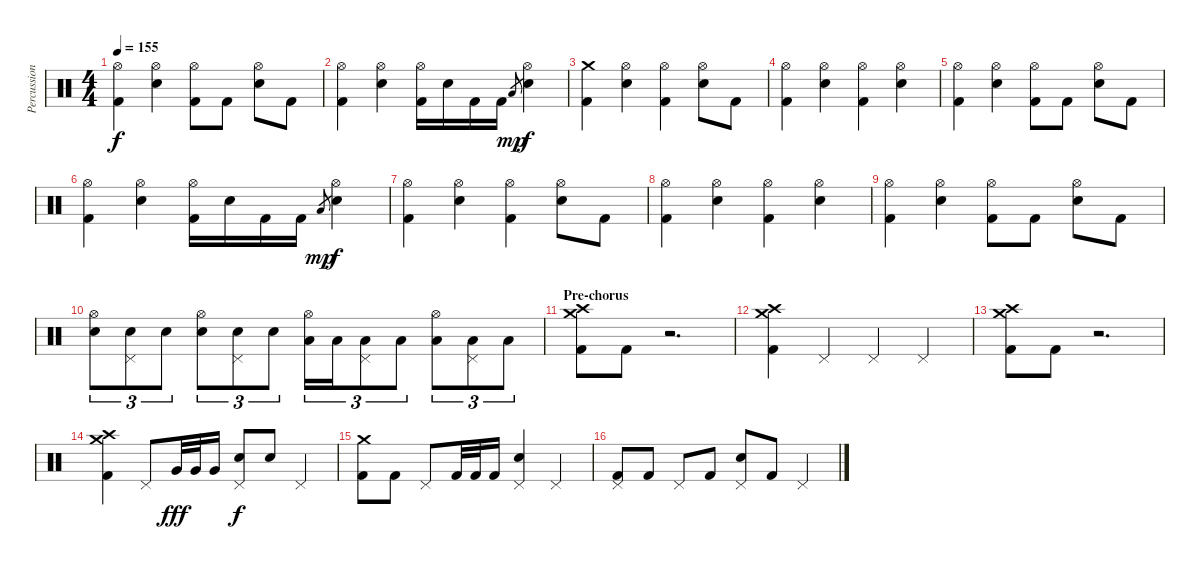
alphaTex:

\track ("Percussion" "Percussion") {instrument percussion}
\staff {score}
\articulation defaults
\ts (4 4)
\tempo 155
\clef neutral
\ks c
("Hi-Hat (open)" "Kick (hit) 2").4{dy f} ("Hi-Hat (open)" "Electric Snare (hit)").4 ("Hi-Hat (open)" "Kick (hit) 2").8 "Kick (hit) 2".8 ("Hi-Hat (open)" "Electric Snare (hit)").8 "Kick (hit) 2".8 |
("Hi-Hat (open)" "Kick (hit) 2").4 ("Hi-Hat (open)" "Electric Snare (hit)").4 ("Hi-Hat (open)" "Kick (hit) 2").16 "Electric Snare (hit)".16 "Kick (hit) 2".16 "Kick (hit) 2".16 "Low Tom (hit)".8{gr dy mp} ("Hi-Hat (open)" "Electric Snare (hit)").4{dy f} |
("Crash medium (hit)" "Kick (hit) 2").4 ("Hi-Hat (open)" "Electric Snare (hit)").4 ("Hi-Hat (open)" "Kick (hit) 2").4 ("Hi-Hat (open)" "Electric Snare (hit)").8 "Kick (hit) 2".8 |
("Hi-Hat (open)" "Kick (hit) 2").4 ("Hi-Hat (open)" "Electric Snare (hit)").4 ("Hi-Hat (open)" "Kick (hit) 2").4 ("Hi-Hat (open)" "Electric Snare (hit)").4 |
("Hi-Hat (open)" "Kick (hit) 2").4 ("Hi-Hat (open)" "Electric Snare (hit)").4 ("Hi-Hat (open)" "Kick (hit) 2").8 "Kick (hit) 2".8 ("Hi-Hat (open)" "Electric Snare (hit)").8 "Kick (hit) 2".8 |
("Hi-Hat (open)" "Kick (hit) 2").4 ("Hi-Hat (open)" "Electric Snare (hit)").4 ("Hi-Hat (open)" "Kick (hit) 2").16 "Electric Snare (hit)".16 "Kick (hit) 2".16 "Kick (hit) 2".16 "Low Tom (hit)".8{gr dy mp} ("Hi-Hat (open)" "Electric Snare (hit)").4{dy f} |
("Hi-Hat (open)" "Kick (hit) 2").4 ("Hi-Hat (open)" "Electric Snare (hit)").4 ("Hi-Hat (open)" "Kick (hit) 2").4 ("Hi-Hat (open)" "Electric Snare (hit)").8 "Kick (hit) 2".8 |
("Hi-Hat (open)" "Kick (hit) 2").4 ("Hi-Hat (open)" "Electric Snare (hit)").4 ("Hi-Hat (open)" "Kick (hit) 2").4 ("Hi-Hat (open)" "Electric Snare (hit)").4 |
("Hi-Hat (open)" "Kick (hit) 2").4 ("Hi-Hat (open)" "Electric Snare (hit)").4 ("Hi-Hat (open)" "Kick (hit) 2").8 "Kick (hit) 2".8 ("Hi-Hat (open)" "Electric Snare (hit)").8 "Kick (hit) 2".8 |
("Hi-Hat (open)" "Electric Snare (hit)").8{tu (3 2)} ("Pedal Hi-Hat (hit)" "Electric Snare (hit)").8{tu (3 2)} "Electric Snare (hit)".8{tu (3 2)} ("Hi-Hat (open)" "Electric Snare (hit)").8{tu (3 2)} ("Pedal Hi-Hat (hit)" "Electric Snare (hit)").8{tu (3 2)} "Electric Snare (hit)".8{tu (3 2)} ("Hi-Hat (open)" "Low Tom (hit)").16{tu (3 2)} "Low Tom (hit)".16{tu (3 2)} ("Pedal Hi-Hat (hit)" "Low Tom (hit)").8{tu (3 2)} "Low Tom (hit)".8{tu (3 2)} ("Hi-Hat (open)" "Low Tom (hit)").8{tu (3 2)} ("Pedal Hi-Hat (hit)" "Low Tom (hit)").8{tu (3 2)} "Low Tom (hit)".8{tu (3 2)} |
\section ("" "Pre-chorus")
("Crash medium (hit)" "Crash high (hit)" "Kick (hit) 2").8 "Kick (hit) 2".8 r.2{d} |
("Crash medium (hit)" "Crash high (hit)" "Kick (hit) 2").4 "Pedal Hi-Hat (hit)".4 "Pedal Hi-Hat (hit)".4 "Pedal Hi-Hat (hit)".4 |
("Crash medium (hit)" "Crash high (hit)" "Kick (hit) 2").8 "Kick (hit) 2".8 r.2{d} |
("Crash medium (hit)" "Crash high (hit)" "Kick (hit) 2").4 "Pedal Hi-Hat (hit)".8 "Very Low Tom (hit)".32{dy fff} "Very Low Tom (hit)".32 "Very Low Tom (hit)".16 ("Pedal Hi-Hat (hit)" "Electric Snare (hit)").8{dy f} "Electric Snare (hit)".8 "Pedal Hi-Hat (hit)".4 |
("Crash medium (hit)" "Kick (hit) 2").8 "Kick (hit) 2".8 "Pedal Hi-Hat (hit)".8 "Kick (hit) 2".32 "Kick (hit) 2".32 "Kick (hit) 2".16 ("Pedal Hi-Hat (hit)" "Electric Snare (hit)").4 "Pedal Hi-Hat (hit)".4 |
("Pedal Hi-Hat (hit)" "Kick (hit) 2").8 "Kick (hit) 2".8 "Pedal Hi-Hat (hit)".8 "Kick (hit) 2".8 ("Pedal Hi-Hat (hit)" "Electric Snare (hit)").8 "Kick (hit) 2".8 "Pedal Hi-Hat (hit)".4
